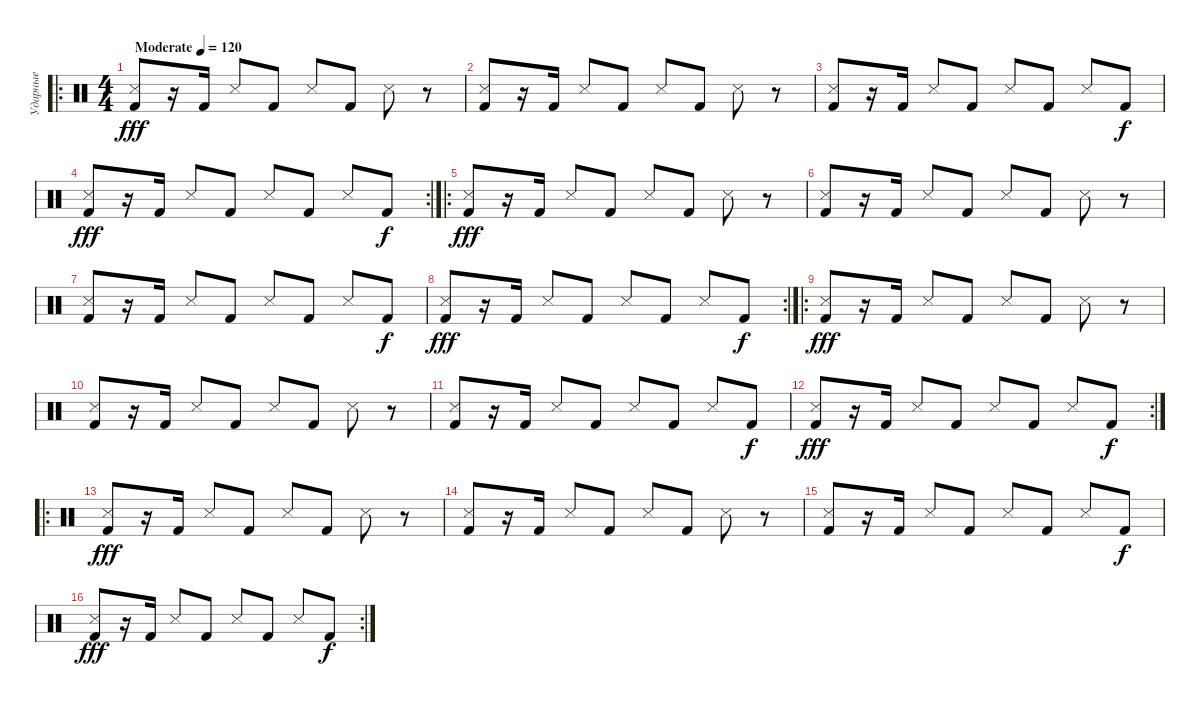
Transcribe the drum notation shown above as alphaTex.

\track ("Ударные" "Ударные") {instrument percussion}
\staff {score}
\articulation defaults
\ro
\ts (4 4)
\tempo (120 "Moderate")
\clef neutral
\ks c
("Snare (side stick) 3" "Kick (hit) 2").8{dy fff} r.16 "Kick (hit) 2".16 "Snare (side stick) 3".8 "Kick (hit) 2".8 "Snare (side stick) 3".8 "Kick (hit) 2".8 "Snare (side stick) 3".8 r.8 |
("Snare (side stick) 3" "Kick (hit) 2").8 r.16 "Kick (hit) 2".16 "Snare (side stick) 3".8 "Kick (hit) 2".8 "Snare (side stick) 3".8 "Kick (hit) 2".8 "Snare (side stick) 3".8 r.8 |
("Snare (side stick) 3" "Kick (hit) 2").8 r.16 "Kick (hit) 2".16 "Snare (side stick) 3".8 "Kick (hit) 2".8 "Snare (side stick) 3".8 "Kick (hit) 2".8 "Snare (side stick) 3".8 "Kick (hit) 2".8{dy f} |
\rc 2
("Snare (side stick) 3" "Kick (hit) 2").8{dy fff} r.16 "Kick (hit) 2".16 "Snare (side stick) 3".8 "Kick (hit) 2".8 "Snare (side stick) 3".8 "Kick (hit) 2".8 "Snare (side stick) 3".8 "Kick (hit) 2".8{dy f} |
\ro
("Snare (side stick) 3" "Kick (hit) 2").8{dy fff} r.16 "Kick (hit) 2".16 "Snare (side stick) 3".8 "Kick (hit) 2".8 "Snare (side stick) 3".8 "Kick (hit) 2".8 "Snare (side stick) 3".8 r.8 |
("Snare (side stick) 3" "Kick (hit) 2").8 r.16 "Kick (hit) 2".16 "Snare (side stick) 3".8 "Kick (hit) 2".8 "Snare (side stick) 3".8 "Kick (hit) 2".8 "Snare (side stick) 3".8 r.8 |
("Snare (side stick) 3" "Kick (hit) 2").8 r.16 "Kick (hit) 2".16 "Snare (side stick) 3".8 "Kick (hit) 2".8 "Snare (side stick) 3".8 "Kick (hit) 2".8 "Snare (side stick) 3".8 "Kick (hit) 2".8{dy f} |
\rc 2
("Snare (side stick) 3" "Kick (hit) 2").8{dy fff} r.16 "Kick (hit) 2".16 "Snare (side stick) 3".8 "Kick (hit) 2".8 "Snare (side stick) 3".8 "Kick (hit) 2".8 "Snare (side stick) 3".8 "Kick (hit) 2".8{dy f} |
\ro
("Snare (side stick) 3" "Kick (hit) 2").8{dy fff} r.16 "Kick (hit) 2".16 "Snare (side stick) 3".8 "Kick (hit) 2".8 "Snare (side stick) 3".8 "Kick (hit) 2".8 "Snare (side stick) 3".8 r.8 |
("Snare (side stick) 3" "Kick (hit) 2").8 r.16 "Kick (hit) 2".16 "Snare (side stick) 3".8 "Kick (hit) 2".8 "Snare (side stick) 3".8 "Kick (hit) 2".8 "Snare (side stick) 3".8 r.8 |
("Snare (side stick) 3" "Kick (hit) 2").8 r.16 "Kick (hit) 2".16 "Snare (side stick) 3".8 "Kick (hit) 2".8 "Snare (side stick) 3".8 "Kick (hit) 2".8 "Snare (side stick) 3".8 "Kick (hit) 2".8{dy f} |
\rc 2
("Snare (side stick) 3" "Kick (hit) 2").8{dy fff} r.16 "Kick (hit) 2".16 "Snare (side stick) 3".8 "Kick (hit) 2".8 "Snare (side stick) 3".8 "Kick (hit) 2".8 "Snare (side stick) 3".8 "Kick (hit) 2".8{dy f} |
\ro
("Snare (side stick) 3" "Kick (hit) 2").8{dy fff} r.16 "Kick (hit) 2".16 "Snare (side stick) 3".8 "Kick (hit) 2".8 "Snare (side stick) 3".8 "Kick (hit) 2".8 "Snare (side stick) 3".8 r.8 |
("Snare (side stick) 3" "Kick (hit) 2").8 r.16 "Kick (hit) 2".16 "Snare (side stick) 3".8 "Kick (hit) 2".8 "Snare (side stick) 3".8 "Kick (hit) 2".8 "Snare (side stick) 3".8 r.8 |
("Snare (side stick) 3" "Kick (hit) 2").8 r.16 "Kick (hit) 2".16 "Snare (side stick) 3".8 "Kick (hit) 2".8 "Snare (side stick) 3".8 "Kick (hit) 2".8 "Snare (side stick) 3".8 "Kick (hit) 2".8{dy f} |
\rc 2
("Snare (side stick) 3" "Kick (hit) 2").8{dy fff} r.16 "Kick (hit) 2".16 "Snare (side stick) 3".8 "Kick (hit) 2".8 "Snare (side stick) 3".8 "Kick (hit) 2".8 "Snare (side stick) 3".8 "Kick (hit) 2".8{dy f}
